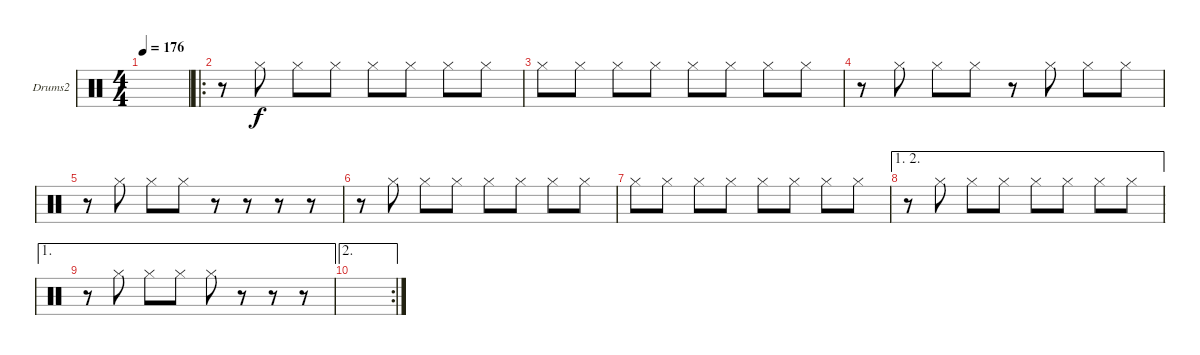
\defaultSystemsLayout 4
\bracketExtendMode groupsimilarinstruments
\firstSystemTrackNameOrientation horizontal
\otherSystemsTrackNameOrientation horizontal
\track ("Drums2" "Drums2") {instrument percussion}
\staff {score}
\articulation defaults
\ts (4 4)
\tempo 176
\clef neutral
\scale
0.333333
\ks c
|
\ro
\scale
0.377778 r.8 "Hi-Hat (closed)".8 "Hi-Hat (closed)".8 "Hi-Hat (closed)".8 "Hi-Hat (closed)".8 "Hi-Hat (closed)".8 "Hi-Hat (closed)".8 "Hi-Hat (closed)".8 |
\scale
0.311111 "Hi-Hat (closed)".8 "Hi-Hat (closed)".8 "Hi-Hat (closed)".8 "Hi-Hat (closed)".8 "Hi-Hat (closed)".8 "Hi-Hat (closed)".8 "Hi-Hat (closed)".8 "Hi-Hat (closed)".8 |
\scale
0.311111 r.8 "Hi-Hat (closed)".8 "Hi-Hat (closed)".8 "Hi-Hat (closed)".8 r.8 "Hi-Hat (closed)".8 "Hi-Hat (closed)".8 "Hi-Hat (closed)".8 |
\scale
0.333333 r.8 "Hi-Hat (closed)".8 "Hi-Hat (closed)".8 "Hi-Hat (closed)".8 r.8 r.8 r.8 r.8 |
\scale
0.333333 r.8 "Hi-Hat (closed)".8 "Hi-Hat (closed)".8 "Hi-Hat (closed)".8 "Hi-Hat (closed)".8 "Hi-Hat (closed)".8 "Hi-Hat (closed)".8 "Hi-Hat (closed)".8 |
\scale
0.333333 "Hi-Hat (closed)".8 "Hi-Hat (closed)".8 "Hi-Hat (closed)".8 "Hi-Hat (closed)".8 "Hi-Hat (closed)".8 "Hi-Hat (closed)".8 "Hi-Hat (closed)".8 "Hi-Hat (closed)".8 |
\ae (1 2)
\scale
0.321839 r.8 "Hi-Hat (closed)".8 "Hi-Hat (closed)".8 "Hi-Hat (closed)".8 "Hi-Hat (closed)".8 "Hi-Hat (closed)".8 "Hi-Hat (closed)".8 "Hi-Hat (closed)".8 |
\ae 1
\scale
0.321839 r.8 "Hi-Hat (closed)".8 "Hi-Hat (closed)".8 "Hi-Hat (closed)".8 "Hi-Hat (closed)".8 r.8 r.8 r.8 |
\ae 2
\rc 2
\scale
0.356322 |
\scale
0.333333 |
\scale
0.333333 |
\scale
0.333333 |
\scale
0.333333 |
\scale
0.333333 |
\scale
0.333333
